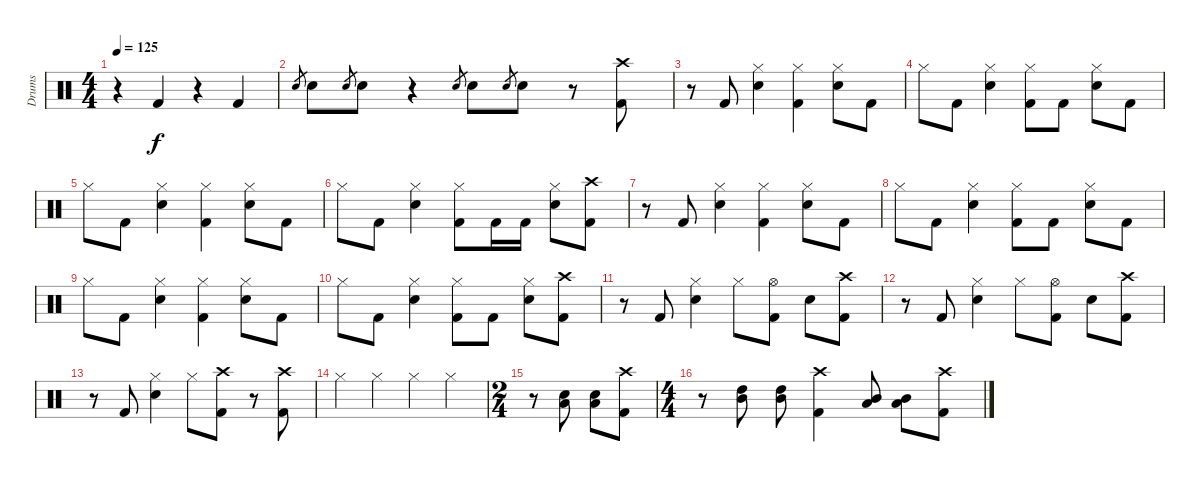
\track ("Drums" "Drums") {instrument percussion}
\staff {score}
\articulation defaults
\ts (4 4)
\tempo 125
\clef neutral
\ks c
r.4{dy f} "Kick (hit) 2".4 r.4 "Kick (hit) 2".4 |
"Electric Snare (hit)".8{gr} "Electric Snare (hit)".8 "Electric Snare (hit)".8{gr} "Electric Snare (hit)".8 r.4 "Electric Snare (hit)".8{gr} "Electric Snare (hit)".8 "Electric Snare (hit)".8{gr} "Electric Snare (hit)".8 r.8 ("Crash high (hit)" "Kick (hit) 2").8 |
r.8 "Kick (hit) 2".8 ("Hi-Hat (closed)" "Electric Snare (hit)").4 ("Hi-Hat (closed)" "Kick (hit) 2").4 ("Hi-Hat (closed)" "Electric Snare (hit)").8 "Kick (hit) 2".8 |
"Hi-Hat (closed)".8 "Kick (hit) 2".8 ("Hi-Hat (closed)" "Electric Snare (hit)").4 ("Hi-Hat (closed)" "Kick (hit) 2").8 "Kick (hit) 2".8 ("Hi-Hat (closed)" "Electric Snare (hit)").8 "Kick (hit) 2".8 |
"Hi-Hat (closed)".8 "Kick (hit) 2".8 ("Hi-Hat (closed)" "Electric Snare (hit)").4 ("Hi-Hat (closed)" "Kick (hit) 2").4 ("Hi-Hat (closed)" "Electric Snare (hit)").8 "Kick (hit) 2".8 |
"Hi-Hat (closed)".8 "Kick (hit) 2".8 ("Hi-Hat (closed)" "Electric Snare (hit)").4 ("Hi-Hat (closed)" "Kick (hit) 2").8 "Kick (hit) 2".16 "Kick (hit) 2".16 ("Hi-Hat (closed)" "Electric Snare (hit)").8 ("Crash high (hit)" "Kick (hit) 2").8 |
r.8 "Kick (hit) 2".8 ("Hi-Hat (closed)" "Electric Snare (hit)").4 ("Hi-Hat (closed)" "Kick (hit) 2").4 ("Hi-Hat (closed)" "Electric Snare (hit)").8 "Kick (hit) 2".8 |
"Hi-Hat (closed)".8 "Kick (hit) 2".8 ("Hi-Hat (closed)" "Electric Snare (hit)").4 ("Hi-Hat (closed)" "Kick (hit) 2").8 "Kick (hit) 2".8 ("Hi-Hat (closed)" "Electric Snare (hit)").8 "Kick (hit) 2".8 |
"Hi-Hat (closed)".8 "Kick (hit) 2".8 ("Hi-Hat (closed)" "Electric Snare (hit)").4 ("Hi-Hat (closed)" "Kick (hit) 2").4 ("Hi-Hat (closed)" "Electric Snare (hit)").8 "Kick (hit) 2".8 |
"Hi-Hat (closed)".8 "Kick (hit) 2".8 ("Hi-Hat (closed)" "Electric Snare (hit)").4 ("Hi-Hat (closed)" "Kick (hit) 2").8 "Kick (hit) 2".8 ("Hi-Hat (closed)" "Electric Snare (hit)").8 ("Crash high (hit)" "Kick (hit) 2").8 |
r.8 "Kick (hit) 2".8 ("Hi-Hat (closed)" "Electric Snare (hit)").4 "Hi-Hat (closed)".8 ("Hi-Hat (open)" "Kick (hit) 2").8 "Electric Snare (hit)".8 ("Crash high (hit)" "Kick (hit) 2").8 |
r.8 "Kick (hit) 2".8 ("Hi-Hat (closed)" "Electric Snare (hit)").4 "Hi-Hat (closed)".8 ("Hi-Hat (open)" "Kick (hit) 2").8 "Electric Snare (hit)".8 ("Crash high (hit)" "Kick (hit) 2").8 |
r.8 "Kick (hit) 2".8 ("Hi-Hat (closed)" "Electric Snare (hit)").4 "Hi-Hat (closed)".8 ("Crash high (hit)" "Kick (hit) 2").8 r.8 ("Crash high (hit)" "Kick (hit) 2").8 |
"Hi-Hat (closed)".4 "Hi-Hat (closed)".4 "Hi-Hat (closed)".4 "Hi-Hat (closed)".4 |
\ts (2 4)
r.8 ("Electric Snare (hit)" "Low Tom (hit)").8 ("Electric Snare (hit)" "Low Tom (hit)").8 ("Crash high (hit)" "Kick (hit) 2").8 |
\ts (4 4)
r.8 ("Mid Tom (hit)" "High Tom (hit)").8 ("Mid Tom (hit)" "High Tom (hit)").8 ("Crash high (hit)" "Kick (hit) 2").4 ("Mid Tom (hit)" "Low Tom (hit)").8 ("Mid Tom (hit)" "Low Tom (hit)").8 ("Crash high (hit)" "Kick (hit) 2").8
